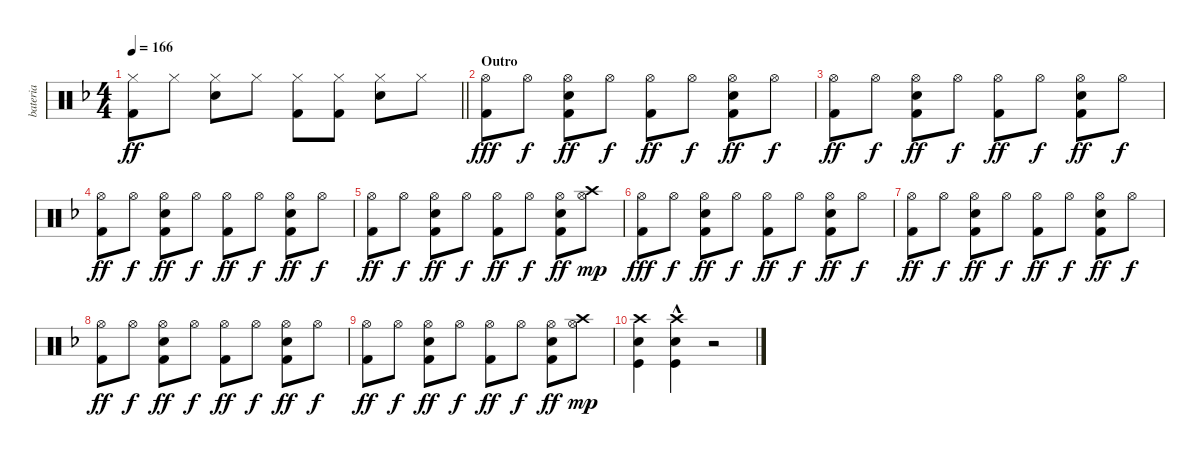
\track ("bateria" "bateria") {instrument percussion}
\staff {score}
\articulation defaults
\ts (4 4)
\tempo 166
\clef neutral
\barLineRight lightlight
\ks f
("Hi-Hat (closed)" "Kick (hit) 2").8{dy ff} "Hi-Hat (closed)".8 ("Hi-Hat (closed)" "Electric Snare (hit)").8 "Hi-Hat (closed)".8 ("Hi-Hat (closed)" "Kick (hit) 2").8 ("Hi-Hat (closed)" "Kick (hit) 2").8 ("Hi-Hat (closed)" "Electric Snare (hit)").8 "Hi-Hat (closed)".8 |
\section ("" "Outro")
("Hi-Hat (open)" "Kick (hit) 2").8{dy fff} "Hi-Hat (open)".8{dy f} ("Hi-Hat (open)" "Kick (hit) 2" "Electric Snare (hit)").8{dy ff} "Hi-Hat (open)".8{dy f} ("Hi-Hat (open)" "Kick (hit) 2").8{dy ff} "Hi-Hat (open)".8{dy f} ("Hi-Hat (open)" "Kick (hit) 2" "Electric Snare (hit)").8{dy ff} "Hi-Hat (open)".8{dy f} |
("Hi-Hat (open)" "Kick (hit) 2").8{dy ff} "Hi-Hat (open)".8{dy f} ("Hi-Hat (open)" "Kick (hit) 2" "Electric Snare (hit)").8{dy ff} "Hi-Hat (open)".8{dy f} ("Hi-Hat (open)" "Kick (hit) 2").8{dy ff} "Hi-Hat (open)".8{dy f} ("Hi-Hat (open)" "Kick (hit) 2" "Electric Snare (hit)").8{dy ff} "Hi-Hat (open)".8{dy f} |
("Hi-Hat (open)" "Kick (hit) 2").8{dy ff} "Hi-Hat (open)".8{dy f} ("Hi-Hat (open)" "Kick (hit) 2" "Electric Snare (hit)").8{dy ff} "Hi-Hat (open)".8{dy f} ("Hi-Hat (open)" "Kick (hit) 2").8{dy ff} "Hi-Hat (open)".8{dy f} ("Hi-Hat (open)" "Kick (hit) 2" "Electric Snare (hit)").8{dy ff} "Hi-Hat (open)".8{dy f} |
("Hi-Hat (open)" "Kick (hit) 2").8{dy ff} "Hi-Hat (open)".8{dy f} ("Hi-Hat (open)" "Kick (hit) 2" "Electric Snare (hit)").8{dy ff} "Hi-Hat (open)".8{dy f} ("Hi-Hat (open)" "Kick (hit) 2").8{dy ff} "Hi-Hat (open)".8{dy f} ("Hi-Hat (open)" "Kick (hit) 2" "Electric Snare (hit)").8{dy ff} ("Hi-Hat (open)" "Crash high (hit)").8{dy mp} |
("Hi-Hat (open)" "Kick (hit) 2").8{dy fff} "Hi-Hat (open)".8{dy f} ("Hi-Hat (open)" "Kick (hit) 2" "Electric Snare (hit)").8{dy ff} "Hi-Hat (open)".8{dy f} ("Hi-Hat (open)" "Kick (hit) 2").8{dy ff} "Hi-Hat (open)".8{dy f} ("Hi-Hat (open)" "Kick (hit) 2" "Electric Snare (hit)").8{dy ff} "Hi-Hat (open)".8{dy f} |
("Hi-Hat (open)" "Kick (hit) 2").8{dy ff} "Hi-Hat (open)".8{dy f} ("Hi-Hat (open)" "Kick (hit) 2" "Electric Snare (hit)").8{dy ff} "Hi-Hat (open)".8{dy f} ("Hi-Hat (open)" "Kick (hit) 2").8{dy ff} "Hi-Hat (open)".8{dy f} ("Hi-Hat (open)" "Kick (hit) 2" "Electric Snare (hit)").8{dy ff} "Hi-Hat (open)".8{dy f} |
("Hi-Hat (open)" "Kick (hit) 2").8{dy ff} "Hi-Hat (open)".8{dy f} ("Hi-Hat (open)" "Kick (hit) 2" "Electric Snare (hit)").8{dy ff} "Hi-Hat (open)".8{dy f} ("Hi-Hat (open)" "Kick (hit) 2").8{dy ff} "Hi-Hat (open)".8{dy f} ("Hi-Hat (open)" "Kick (hit) 2" "Electric Snare (hit)").8{dy ff} "Hi-Hat (open)".8{dy f} |
("Hi-Hat (open)" "Kick (hit) 2").8{dy ff} "Hi-Hat (open)".8{dy f} ("Hi-Hat (open)" "Kick (hit) 2" "Electric Snare (hit)").8{dy ff} "Hi-Hat (open)".8{dy f} ("Hi-Hat (open)" "Kick (hit) 2").8{dy ff} "Hi-Hat (open)".8{dy f} ("Hi-Hat (open)" "Kick (hit) 2" "Electric Snare (hit)").8{dy ff} ("Hi-Hat (open)" "Crash high (hit)").8{dy mp} |
("Crash high (hit)" "Kick (hit)" "Snare (hit) 2").4 ("Crash high (hit)"{hac} "Kick (hit)" "Snare (hit) 2").4 r.2
